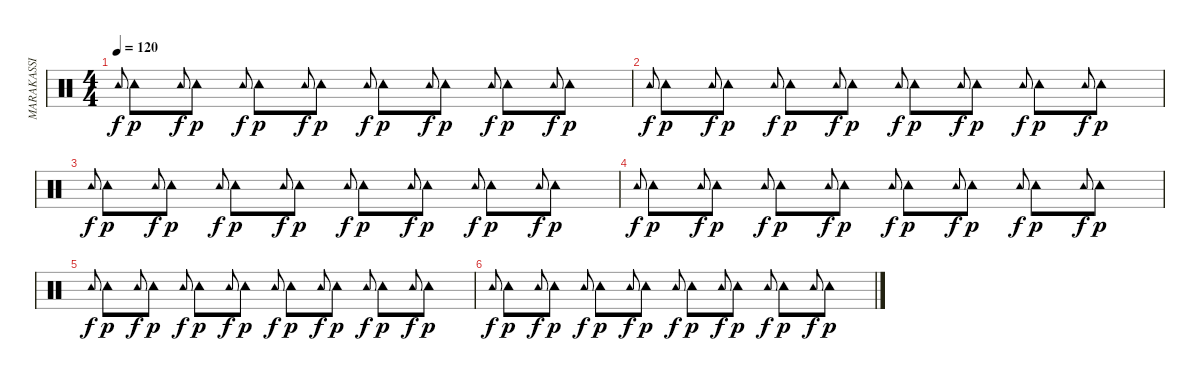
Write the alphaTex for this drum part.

\track ("MARAKASSI" "MARAKASSI") {instrument percussion}
\staff {score}
\articulation defaults
\ts (4 4)
\tempo 120
\clef neutral
\ks c "Tambourine (hit)".8{gr onbeat dy f} "Tambourine (hit)".8{dy p} "Tambourine (hit)".8{gr onbeat dy f} "Tambourine (hit)".8{dy p} "Tambourine (hit)".8{gr onbeat dy f} "Tambourine (hit)".8{dy p} "Tambourine (hit)".8{gr onbeat dy f} "Tambourine (hit)".8{dy p} "Tambourine (hit)".8{gr onbeat dy f} "Tambourine (hit)".8{dy p} "Tambourine (hit)".8{gr onbeat dy f} "Tambourine (hit)".8{dy p} "Tambourine (hit)".8{gr onbeat dy f} "Tambourine (hit)".8{dy p} "Tambourine (hit)".8{gr onbeat dy f} "Tambourine (hit)".8{dy p}
|
"Tambourine (hit)".8{gr onbeat dy f} "Tambourine (hit)".8{dy p} "Tambourine (hit)".8{gr onbeat dy f} "Tambourine (hit)".8{dy p} "Tambourine (hit)".8{gr onbeat dy f} "Tambourine (hit)".8{dy p} "Tambourine (hit)".8{gr onbeat dy f} "Tambourine (hit)".8{dy p} "Tambourine (hit)".8{gr onbeat dy f} "Tambourine (hit)".8{dy p} "Tambourine (hit)".8{gr onbeat dy f} "Tambourine (hit)".8{dy p} "Tambourine (hit)".8{gr onbeat dy f} "Tambourine (hit)".8{dy p} "Tambourine (hit)".8{gr onbeat dy f} "Tambourine (hit)".8{dy p} |
"Tambourine (hit)".8{gr onbeat dy f} "Tambourine (hit)".8{dy p} "Tambourine (hit)".8{gr onbeat dy f} "Tambourine (hit)".8{dy p} "Tambourine (hit)".8{gr onbeat dy f} "Tambourine (hit)".8{dy p} "Tambourine (hit)".8{gr onbeat dy f} "Tambourine (hit)".8{dy p} "Tambourine (hit)".8{gr onbeat dy f} "Tambourine (hit)".8{dy p} "Tambourine (hit)".8{gr onbeat dy f} "Tambourine (hit)".8{dy p} "Tambourine (hit)".8{gr onbeat dy f} "Tambourine (hit)".8{dy p} "Tambourine (hit)".8{gr onbeat dy f} "Tambourine (hit)".8{dy p} |
"Tambourine (hit)".8{gr onbeat dy f} "Tambourine (hit)".8{dy p} "Tambourine (hit)".8{gr onbeat dy f} "Tambourine (hit)".8{dy p} "Tambourine (hit)".8{gr onbeat dy f} "Tambourine (hit)".8{dy p} "Tambourine (hit)".8{gr onbeat dy f} "Tambourine (hit)".8{dy p} "Tambourine (hit)".8{gr onbeat dy f} "Tambourine (hit)".8{dy p} "Tambourine (hit)".8{gr onbeat dy f} "Tambourine (hit)".8{dy p} "Tambourine (hit)".8{gr onbeat dy f} "Tambourine (hit)".8{dy p} "Tambourine (hit)".8{gr onbeat dy f} "Tambourine (hit)".8{dy p} |
"Tambourine (hit)".8{gr onbeat dy f} "Tambourine (hit)".8{dy p} "Tambourine (hit)".8{gr onbeat dy f} "Tambourine (hit)".8{dy p} "Tambourine (hit)".8{gr onbeat dy f} "Tambourine (hit)".8{dy p} "Tambourine (hit)".8{gr onbeat dy f} "Tambourine (hit)".8{dy p} "Tambourine (hit)".8{gr onbeat dy f} "Tambourine (hit)".8{dy p} "Tambourine (hit)".8{gr onbeat dy f} "Tambourine (hit)".8{dy p} "Tambourine (hit)".8{gr onbeat dy f} "Tambourine (hit)".8{dy p} "Tambourine (hit)".8{gr onbeat dy f} "Tambourine (hit)".8{dy p} |
"Tambourine (hit)".8{gr onbeat dy f} "Tambourine (hit)".8{dy p} "Tambourine (hit)".8{gr onbeat dy f} "Tambourine (hit)".8{dy p} "Tambourine (hit)".8{gr onbeat dy f} "Tambourine (hit)".8{dy p} "Tambourine (hit)".8{gr onbeat dy f} "Tambourine (hit)".8{dy p} "Tambourine (hit)".8{gr onbeat dy f} "Tambourine (hit)".8{dy p} "Tambourine (hit)".8{gr onbeat dy f} "Tambourine (hit)".8{dy p} "Tambourine (hit)".8{gr onbeat dy f} "Tambourine (hit)".8{dy p} "Tambourine (hit)".8{gr onbeat dy f} "Tambourine (hit)".8{dy p}
